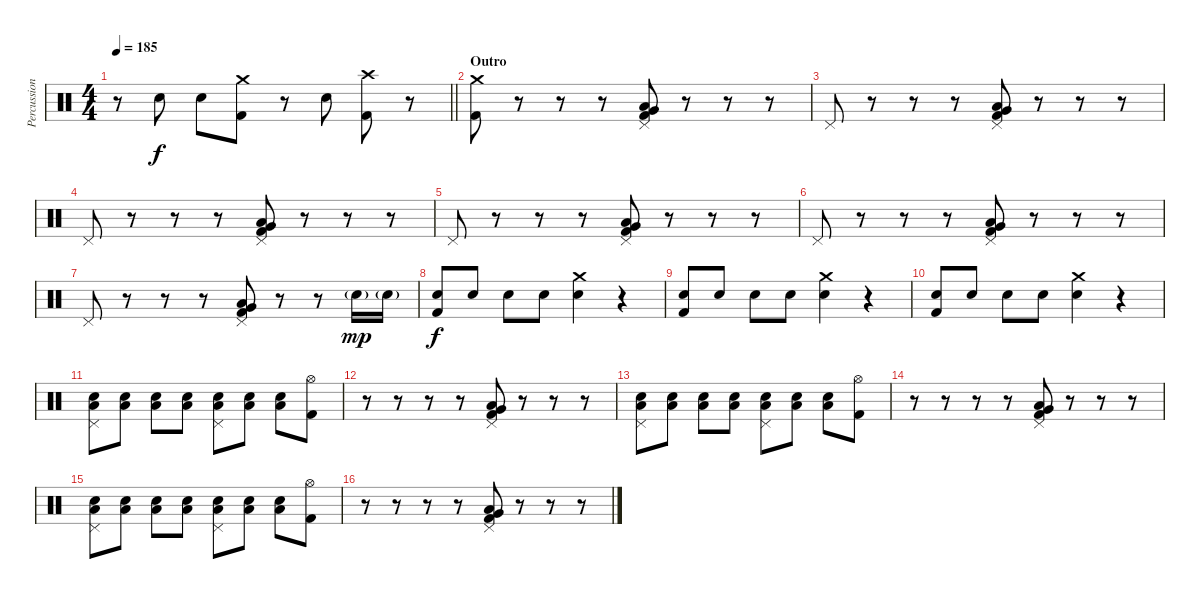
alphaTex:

\track ("Percussion" "Percussion") {instrument percussion}
\staff {score}
\articulation defaults
\ts (4 4)
\tempo 185
\clef neutral
\barLineRight lightlight
\ks c
r.8{dy f} "Electric Snare (hit)".8 "Electric Snare (hit)".8 ("Crash medium (hit)" "Kick (hit) 2").8 r.8 "Electric Snare (hit)".8 ("Crash high (hit)" "Kick (hit) 2").8 r.8 |
\section ("" "Outro")
("Crash medium (hit)" "Kick (hit) 2").8 r.8 r.8 r.8 ("Pedal Hi-Hat (hit)" "Low Floor Tom (hit)" "Very Low Tom (hit)" "Kick (hit) 2").8 r.8 r.8 r.8 |
"Pedal Hi-Hat (hit)".8 r.8 r.8 r.8 ("Pedal Hi-Hat (hit)" "Low Floor Tom (hit)" "Very Low Tom (hit)" "Kick (hit) 2").8 r.8 r.8 r.8 |
"Pedal Hi-Hat (hit)".8 r.8 r.8 r.8 ("Pedal Hi-Hat (hit)" "Low Floor Tom (hit)" "Very Low Tom (hit)" "Kick (hit) 2").8 r.8 r.8 r.8 |
"Pedal Hi-Hat (hit)".8 r.8 r.8 r.8 ("Pedal Hi-Hat (hit)" "Low Floor Tom (hit)" "Very Low Tom (hit)" "Kick (hit) 2").8 r.8 r.8 r.8 |
"Pedal Hi-Hat (hit)".8 r.8 r.8 r.8 ("Pedal Hi-Hat (hit)" "Low Floor Tom (hit)" "Very Low Tom (hit)" "Kick (hit) 2").8 r.8 r.8 r.8 |
"Pedal Hi-Hat (hit)".8 r.8 r.8 r.8 ("Pedal Hi-Hat (hit)" "Low Floor Tom (hit)" "Very Low Tom (hit)" "Kick (hit) 2").8 r.8 r.8 "Electric Snare (hit)"{g}.16{dy mp} "Electric Snare (hit)"{g}.16 |
("Electric Snare (hit)" "Kick (hit) 2").8{dy f} "Electric Snare (hit)".8 "Electric Snare (hit)".8 "Electric Snare (hit)".8 ("Crash medium (hit)" "Electric Snare (hit)").4 r.4 |
("Electric Snare (hit)" "Kick (hit) 2").8 "Electric Snare (hit)".8 "Electric Snare (hit)".8 "Electric Snare (hit)".8 ("Crash medium (hit)" "Electric Snare (hit)").4 r.4 |
("Electric Snare (hit)" "Kick (hit) 2").8 "Electric Snare (hit)".8 "Electric Snare (hit)".8 "Electric Snare (hit)".8 ("Crash medium (hit)" "Electric Snare (hit)").4 r.4 |
("Pedal Hi-Hat (hit)" "Low Floor Tom (hit)" "Electric Snare (hit)").8 ("Low Floor Tom (hit)" "Electric Snare (hit)").8 ("Low Floor Tom (hit)" "Electric Snare (hit)").8 ("Low Floor Tom (hit)" "Electric Snare (hit)").8 ("Pedal Hi-Hat (hit)" "Low Floor Tom (hit)" "Electric Snare (hit)").8 ("Low Floor Tom (hit)" "Electric Snare (hit)").8 ("Low Floor Tom (hit)" "Electric Snare (hit)").8 ("Hi-Hat (open)" "Kick (hit) 2").8 |
r.8 r.8 r.8 r.8 ("Pedal Hi-Hat (hit)" "Very Low Tom (hit)" "Low Floor Tom (hit)" "Kick (hit) 2").8 r.8 r.8 r.8 |
("Pedal Hi-Hat (hit)" "Low Floor Tom (hit)" "Electric Snare (hit)").8 ("Low Floor Tom (hit)" "Electric Snare (hit)").8 ("Low Floor Tom (hit)" "Electric Snare (hit)").8 ("Low Floor Tom (hit)" "Electric Snare (hit)").8 ("Pedal Hi-Hat (hit)" "Low Floor Tom (hit)" "Electric Snare (hit)").8 ("Low Floor Tom (hit)" "Electric Snare (hit)").8 ("Low Floor Tom (hit)" "Electric Snare (hit)").8 ("Hi-Hat (open)" "Kick (hit) 2").8 |
r.8 r.8 r.8 r.8 ("Pedal Hi-Hat (hit)" "Very Low Tom (hit)" "Low Floor Tom (hit)" "Kick (hit) 2").8 r.8 r.8 r.8 |
("Pedal Hi-Hat (hit)" "Low Floor Tom (hit)" "Electric Snare (hit)").8 ("Low Floor Tom (hit)" "Electric Snare (hit)").8 ("Low Floor Tom (hit)" "Electric Snare (hit)").8 ("Low Floor Tom (hit)" "Electric Snare (hit)").8 ("Pedal Hi-Hat (hit)" "Low Floor Tom (hit)" "Electric Snare (hit)").8 ("Low Floor Tom (hit)" "Electric Snare (hit)").8 ("Low Floor Tom (hit)" "Electric Snare (hit)").8 ("Hi-Hat (open)" "Kick (hit) 2").8 |
r.8 r.8 r.8 r.8 ("Pedal Hi-Hat (hit)" "Very Low Tom (hit)" "Low Floor Tom (hit)" "Kick (hit) 2").8 r.8 r.8 r.8
